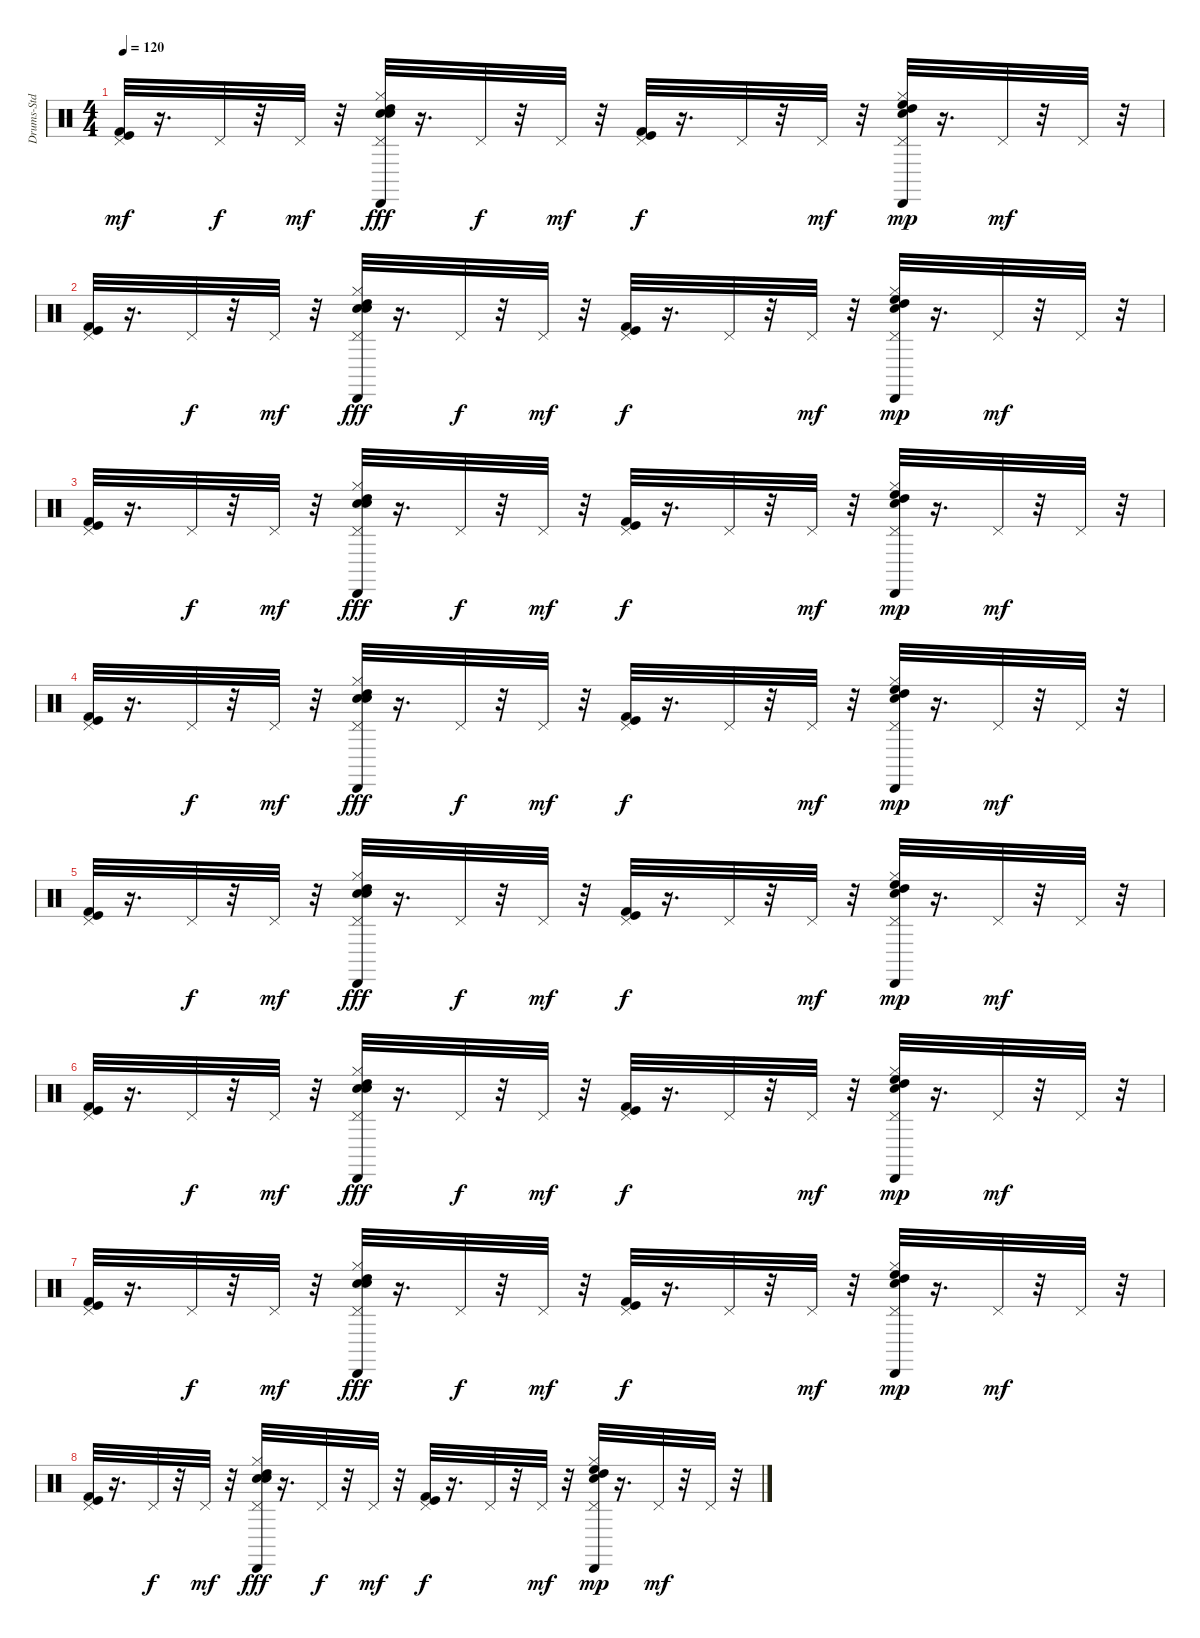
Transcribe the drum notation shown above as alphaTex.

\track ("Drums-Std" "Drums-Std") {instrument percussion}
\staff {score}
\articulation defaults
\ts (4 4)
\tempo 120
\clef neutral
\ks c
("Pedal Hi-Hat (hit)" "Kick (hit) 2" "Kick (hit)").32{dy mf} r.16{d} "Pedal Hi-Hat (hit)".32{dy f} r.32 "Pedal Hi-Hat (hit)".32{dy mf} r.32 ("Snare (hit) 2" "High Tom (hit)" "Cabasa (hit)" "Hi-Hat (closed)" "Pedal Hi-Hat (hit)" "Electric Snare (hit)").32{dy fff} r.16{d} "Pedal Hi-Hat (hit)".32{dy f} r.32 "Pedal Hi-Hat (hit)".32{dy mf} r.32 ("Pedal Hi-Hat (hit)" "Kick (hit) 2" "Kick (hit)").32{dy f} r.16{d} "Pedal Hi-Hat (hit)".32 r.32 "Pedal Hi-Hat (hit)".32{dy mf} r.32 ("Snare (hit) 2" "High Floor Tom (hit)" "High Tom (hit)" "Cabasa (hit)" "Hi-Hat (closed)" "Pedal Hi-Hat (hit)").32{dy mp} r.16{d} "Pedal Hi-Hat (hit)".32{dy mf} r.32 "Pedal Hi-Hat (hit)".32 r.32 |
("Pedal Hi-Hat (hit)" "Kick (hit) 2" "Kick (hit)").32 r.16{d} "Pedal Hi-Hat (hit)".32{dy f} r.32 "Pedal Hi-Hat (hit)".32{dy mf} r.32 ("Snare (hit) 2" "High Tom (hit)" "Cabasa (hit)" "Hi-Hat (closed)" "Pedal Hi-Hat (hit)" "Electric Snare (hit)").32{dy fff} r.16{d} "Pedal Hi-Hat (hit)".32{dy f} r.32 "Pedal Hi-Hat (hit)".32{dy mf} r.32 ("Pedal Hi-Hat (hit)" "Kick (hit) 2" "Kick (hit)").32{dy f} r.16{d} "Pedal Hi-Hat (hit)".32 r.32 "Pedal Hi-Hat (hit)".32{dy mf} r.32 ("Snare (hit) 2" "High Floor Tom (hit)" "High Tom (hit)" "Cabasa (hit)" "Hi-Hat (closed)" "Pedal Hi-Hat (hit)").32{dy mp} r.16{d} "Pedal Hi-Hat (hit)".32{dy mf} r.32 "Pedal Hi-Hat (hit)".32 r.32 |
("Pedal Hi-Hat (hit)" "Kick (hit) 2" "Kick (hit)").32 r.16{d} "Pedal Hi-Hat (hit)".32{dy f} r.32 "Pedal Hi-Hat (hit)".32{dy mf} r.32 ("Snare (hit) 2" "High Tom (hit)" "Cabasa (hit)" "Hi-Hat (closed)" "Pedal Hi-Hat (hit)" "Electric Snare (hit)").32{dy fff} r.16{d} "Pedal Hi-Hat (hit)".32{dy f} r.32 "Pedal Hi-Hat (hit)".32{dy mf} r.32 ("Pedal Hi-Hat (hit)" "Kick (hit) 2" "Kick (hit)").32{dy f} r.16{d} "Pedal Hi-Hat (hit)".32 r.32 "Pedal Hi-Hat (hit)".32{dy mf} r.32 ("Snare (hit) 2" "High Floor Tom (hit)" "High Tom (hit)" "Cabasa (hit)" "Hi-Hat (closed)" "Pedal Hi-Hat (hit)").32{dy mp} r.16{d} "Pedal Hi-Hat (hit)".32{dy mf} r.32 "Pedal Hi-Hat (hit)".32 r.32 |
("Pedal Hi-Hat (hit)" "Kick (hit) 2" "Kick (hit)").32 r.16{d} "Pedal Hi-Hat (hit)".32{dy f} r.32 "Pedal Hi-Hat (hit)".32{dy mf} r.32 ("Snare (hit) 2" "High Tom (hit)" "Cabasa (hit)" "Hi-Hat (closed)" "Pedal Hi-Hat (hit)" "Electric Snare (hit)").32{dy fff} r.16{d} "Pedal Hi-Hat (hit)".32{dy f} r.32 "Pedal Hi-Hat (hit)".32{dy mf} r.32 ("Pedal Hi-Hat (hit)" "Kick (hit) 2" "Kick (hit)").32{dy f} r.16{d} "Pedal Hi-Hat (hit)".32 r.32 "Pedal Hi-Hat (hit)".32{dy mf} r.32 ("Snare (hit) 2" "High Floor Tom (hit)" "High Tom (hit)" "Cabasa (hit)" "Hi-Hat (closed)" "Pedal Hi-Hat (hit)").32{dy mp} r.16{d} "Pedal Hi-Hat (hit)".32{dy mf} r.32 "Pedal Hi-Hat (hit)".32 r.32 |
("Pedal Hi-Hat (hit)" "Kick (hit) 2" "Kick (hit)").32 r.16{d} "Pedal Hi-Hat (hit)".32{dy f} r.32 "Pedal Hi-Hat (hit)".32{dy mf} r.32 ("Snare (hit) 2" "High Tom (hit)" "Cabasa (hit)" "Hi-Hat (closed)" "Pedal Hi-Hat (hit)" "Electric Snare (hit)").32{dy fff} r.16{d} "Pedal Hi-Hat (hit)".32{dy f} r.32 "Pedal Hi-Hat (hit)".32{dy mf} r.32 ("Pedal Hi-Hat (hit)" "Kick (hit) 2" "Kick (hit)").32{dy f} r.16{d} "Pedal Hi-Hat (hit)".32 r.32 "Pedal Hi-Hat (hit)".32{dy mf} r.32 ("Snare (hit) 2" "High Floor Tom (hit)" "High Tom (hit)" "Cabasa (hit)" "Hi-Hat (closed)" "Pedal Hi-Hat (hit)").32{dy mp} r.16{d} "Pedal Hi-Hat (hit)".32{dy mf} r.32 "Pedal Hi-Hat (hit)".32 r.32 |
("Pedal Hi-Hat (hit)" "Kick (hit) 2" "Kick (hit)").32 r.16{d} "Pedal Hi-Hat (hit)".32{dy f} r.32 "Pedal Hi-Hat (hit)".32{dy mf} r.32 ("Snare (hit) 2" "High Tom (hit)" "Cabasa (hit)" "Hi-Hat (closed)" "Pedal Hi-Hat (hit)" "Electric Snare (hit)").32{dy fff} r.16{d} "Pedal Hi-Hat (hit)".32{dy f} r.32 "Pedal Hi-Hat (hit)".32{dy mf} r.32 ("Pedal Hi-Hat (hit)" "Kick (hit) 2" "Kick (hit)").32{dy f} r.16{d} "Pedal Hi-Hat (hit)".32 r.32 "Pedal Hi-Hat (hit)".32{dy mf} r.32 ("Snare (hit) 2" "High Floor Tom (hit)" "High Tom (hit)" "Cabasa (hit)" "Hi-Hat (closed)" "Pedal Hi-Hat (hit)").32{dy mp} r.16{d} "Pedal Hi-Hat (hit)".32{dy mf} r.32 "Pedal Hi-Hat (hit)".32 r.32 |
("Pedal Hi-Hat (hit)" "Kick (hit) 2" "Kick (hit)").32 r.16{d} "Pedal Hi-Hat (hit)".32{dy f} r.32 "Pedal Hi-Hat (hit)".32{dy mf} r.32 ("Snare (hit) 2" "High Tom (hit)" "Cabasa (hit)" "Hi-Hat (closed)" "Pedal Hi-Hat (hit)" "Electric Snare (hit)").32{dy fff} r.16{d} "Pedal Hi-Hat (hit)".32{dy f} r.32 "Pedal Hi-Hat (hit)".32{dy mf} r.32 ("Pedal Hi-Hat (hit)" "Kick (hit) 2" "Kick (hit)").32{dy f} r.16{d} "Pedal Hi-Hat (hit)".32 r.32 "Pedal Hi-Hat (hit)".32{dy mf} r.32 ("Snare (hit) 2" "High Floor Tom (hit)" "High Tom (hit)" "Cabasa (hit)" "Hi-Hat (closed)" "Pedal Hi-Hat (hit)").32{dy mp} r.16{d} "Pedal Hi-Hat (hit)".32{dy mf} r.32 "Pedal Hi-Hat (hit)".32 r.32 |
("Pedal Hi-Hat (hit)" "Kick (hit) 2" "Kick (hit)").32 r.16{d} "Pedal Hi-Hat (hit)".32{dy f} r.32 "Pedal Hi-Hat (hit)".32{dy mf} r.32 ("Snare (hit) 2" "High Tom (hit)" "Cabasa (hit)" "Hi-Hat (closed)" "Pedal Hi-Hat (hit)" "Electric Snare (hit)").32{dy fff} r.16{d} "Pedal Hi-Hat (hit)".32{dy f} r.32 "Pedal Hi-Hat (hit)".32{dy mf} r.32 ("Pedal Hi-Hat (hit)" "Kick (hit) 2" "Kick (hit)").32{dy f} r.16{d} "Pedal Hi-Hat (hit)".32 r.32 "Pedal Hi-Hat (hit)".32{dy mf} r.32 ("Snare (hit) 2" "High Floor Tom (hit)" "High Tom (hit)" "Cabasa (hit)" "Hi-Hat (closed)" "Pedal Hi-Hat (hit)").32{dy mp} r.16{d} "Pedal Hi-Hat (hit)".32{dy mf} r.32 "Pedal Hi-Hat (hit)".32 r.32
